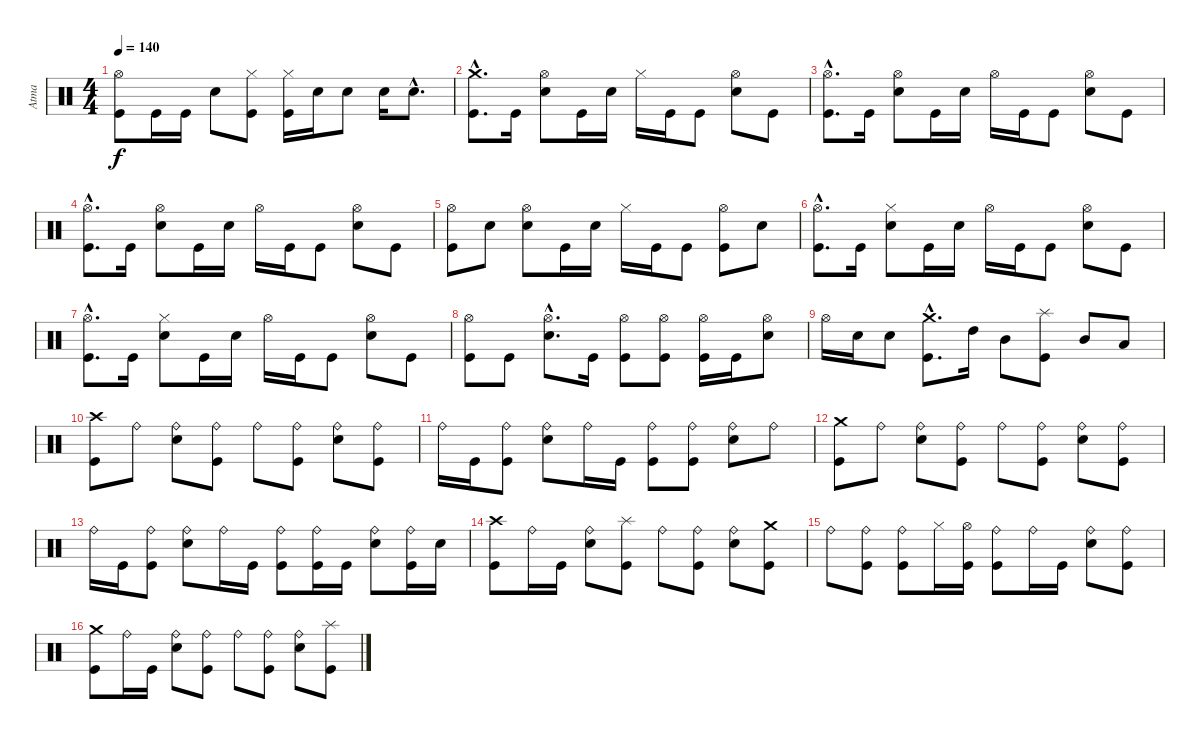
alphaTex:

\track ("Atma" "Atma") {instrument percussion}
\staff {score}
\articulation defaults
\ts (4 4)
\tempo 140
\clef neutral
\ks c
("Kick (hit)" "Hi-Hat (open)").8{dy f} "Kick (hit)".16 "Kick (hit)".16 "Snare (hit) 2".8 ("Kick (hit)" "Hi-Hat (closed)").8 ("Kick (hit)" "Hi-Hat (closed)").16 "Snare (hit) 2".16 "Snare (hit) 2".8 "Snare (hit) 2".16 "Snare (hit) 2"{hac}.8{d} |
("Kick (hit)"{hac} "Crash medium (hit)"{hac}).8{d} "Kick (hit)".16 ("Snare (hit) 2" "Hi-Hat (open)").8 "Kick (hit)".16 "Snare (hit) 2".16 "Hi-Hat (closed)".16 "Kick (hit)".16 "Kick (hit)".8 ("Snare (hit) 2" "Hi-Hat (open)").8 "Kick (hit)".8 |
("Kick (hit)"{hac} "Hi-Hat (open)"{hac}).8{d} "Kick (hit)".16 ("Snare (hit) 2" "Hi-Hat (open)").8 "Kick (hit)".16 "Snare (hit) 2".16 "Hi-Hat (open)".16 "Kick (hit)".16 "Kick (hit)".8 ("Snare (hit) 2" "Hi-Hat (open)").8 "Kick (hit)".8 |
("Kick (hit)"{hac} "Hi-Hat (open)"{hac}).8{d} "Kick (hit)".16 ("Snare (hit) 2" "Hi-Hat (open)").8 "Kick (hit)".16 "Snare (hit) 2".16 "Hi-Hat (open)".16 "Kick (hit)".16 "Kick (hit)".8 ("Snare (hit) 2" "Hi-Hat (open)").8 "Kick (hit)".8 |
("Kick (hit)" "Hi-Hat (open)").8 "Snare (hit) 2".8 ("Snare (hit) 2" "Hi-Hat (open)").8 "Kick (hit)".16 "Snare (hit) 2".16 "Hi-Hat (closed)".16 "Kick (hit)".16 "Kick (hit)".8 ("Kick (hit)" "Hi-Hat (open)").8 "Snare (hit) 2".8 |
("Kick (hit)"{hac} "Hi-Hat (open)"{hac}).8{d} "Kick (hit)".16 ("Snare (hit) 2" "Hi-Hat (closed)").8 "Kick (hit)".16 "Snare (hit) 2".16 "Hi-Hat (open)".16 "Kick (hit)".16 "Kick (hit)".8 ("Snare (hit) 2" "Hi-Hat (open)").8 "Kick (hit)".8 |
("Kick (hit)"{hac} "Hi-Hat (open)"{hac}).8{d} "Kick (hit)".16 ("Snare (hit) 2" "Hi-Hat (closed)").8 "Kick (hit)".16 "Snare (hit) 2".16 "Hi-Hat (open)".16 "Kick (hit)".16 "Kick (hit)".8 ("Snare (hit) 2" "Hi-Hat (open)").8 "Kick (hit)".8 |
("Kick (hit)" "Hi-Hat (open)").8 "Kick (hit)".8 ("Snare (hit) 2"{hac} "Hi-Hat (open)"{hac}).8{d} "Kick (hit)".16 ("Kick (hit)" "Hi-Hat (open)").8 ("Kick (hit)" "Hi-Hat (open)").8 ("Kick (hit)" "Hi-Hat (open)").16 "Kick (hit)".16 ("Snare (hit) 2" "Hi-Hat (open)").8 |
"Hi-Hat (open)".16 "Snare (hit) 2".16 "Snare (hit) 2".8 ("Kick (hit)"{hac} "Crash medium (hit)"{hac}).8{d} "High Tom (hit)".16 "Mid Tom (hit)".8 ("Kick (hit)" "Splash (hit)").8 "Mid Tom (hit)".8 "Low Tom (hit)".8 |
("Kick (hit)" "Crash high (hit)").8 "Ride (bell)".8 ("Snare (hit) 2" "Ride (bell)").8 ("Kick (hit)" "Ride (bell)").8 "Ride (bell)".8 ("Kick (hit)" "Ride (bell)").8 ("Snare (hit) 2" "Ride (bell)").8 ("Kick (hit)" "Ride (bell)").8 |
"Ride (bell)".16 "Kick (hit)".16 ("Kick (hit)" "Ride (bell)").8 ("Snare (hit) 2" "Ride (bell)").8 "Ride (bell)".16 "Kick (hit)".16 ("Kick (hit)" "Ride (bell)").8 ("Kick (hit)" "Ride (bell)").8 ("Snare (hit) 2" "Ride (bell)").8 "Ride (bell)".8 |
("Kick (hit)" "Crash medium (hit)").8 "Ride (bell)".8 ("Snare (hit) 2" "Ride (bell)").8 ("Kick (hit)" "Ride (bell)").8 "Ride (bell)".8 ("Kick (hit)" "Ride (bell)").8 ("Snare (hit) 2" "Ride (bell)").8 ("Kick (hit)" "Ride (bell)").8 |
"Ride (bell)".16 "Kick (hit)".16 ("Kick (hit)" "Ride (bell)").8 ("Snare (hit) 2" "Ride (bell)").8 "Ride (bell)".16 "Kick (hit)".16 ("Kick (hit)" "Ride (bell)").8 ("Kick (hit)" "Ride (bell)").16 "Kick (hit)".16 ("Snare (hit) 2" "Ride (bell)").8 ("Kick (hit)" "Ride (bell)").16 "Snare (hit) 2".16 |
("Kick (hit)" "Crash high (hit)").8 "Ride (bell)".16 "Kick (hit)".16 ("Snare (hit) 2" "Ride (bell)").8 ("Kick (hit)" "Splash (hit)").8 "Ride (bell)".8 ("Kick (hit)" "Ride (bell)").8 ("Snare (hit) 2" "Ride (bell)").8 ("Kick (hit)" "Crash medium (hit)").8 |
"Ride (bell)".8 ("Kick (hit)" "Ride (bell)").8 ("Kick (hit)" "Ride (bell)").8 "Hi-Hat (closed)".16 ("Kick (hit)" "Hi-Hat (open)").16 ("Kick (hit)" "Ride (bell)").8 "Ride (bell)".16 "Kick (hit)".16 ("Snare (hit) 2" "Ride (bell)").8 ("Kick (hit)" "Ride (bell)").8 |
("Kick (hit)" "Crash medium (hit)").8 "Ride (bell)".16 "Kick (hit)".16 ("Snare (hit) 2" "Ride (bell)").8 ("Kick (hit)" "Ride (bell)").8 "Ride (bell)".8 ("Kick (hit)" "Ride (bell)").8 ("Snare (hit) 2" "Ride (bell)").8 ("Kick (hit)" "Splash (hit)").8
